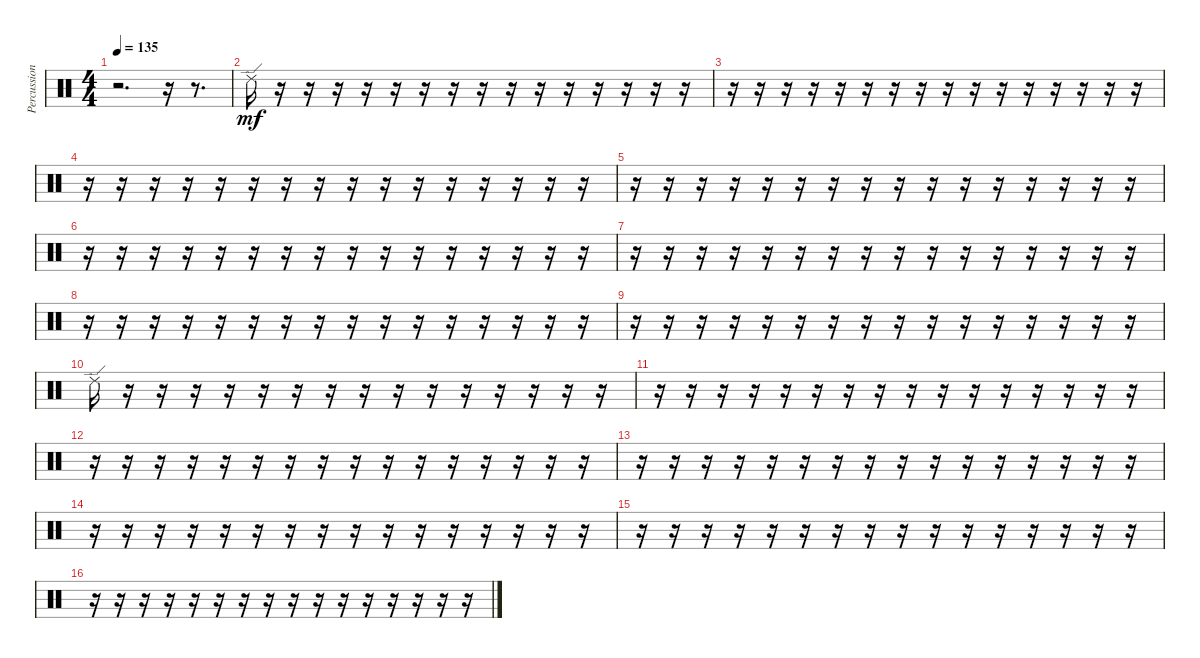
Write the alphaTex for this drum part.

\track ("Percussion (Orchestral Kit)" "Percussion") {instrument percussion}
\staff {score}
\articulation defaults
\ts (4 4)
\tempo 135
\clef neutral
\ks c
r.2{d dy mf} r.16 r.8{d} |
"Ride (edge) 2".16 r.16 r.16 r.16 r.16 r.16 r.16 r.16 r.16 r.16 r.16 r.16 r.16 r.16 r.16 r.16 |
r.16 r.16 r.16 r.16 r.16 r.16 r.16 r.16 r.16 r.16 r.16 r.16 r.16 r.16 r.16 r.16 |
r.16 r.16 r.16 r.16 r.16 r.16 r.16 r.16 r.16 r.16 r.16 r.16 r.16 r.16 r.16 r.16 |
r.16 r.16 r.16 r.16 r.16 r.16 r.16 r.16 r.16 r.16 r.16 r.16 r.16 r.16 r.16 r.16 |
r.16 r.16 r.16 r.16 r.16 r.16 r.16 r.16 r.16 r.16 r.16 r.16 r.16 r.16 r.16 r.16 |
r.16 r.16 r.16 r.16 r.16 r.16 r.16 r.16 r.16 r.16 r.16 r.16 r.16 r.16 r.16 r.16 |
r.16 r.16 r.16 r.16 r.16 r.16 r.16 r.16 r.16 r.16 r.16 r.16 r.16 r.16 r.16 r.16 |
r.16 r.16 r.16 r.16 r.16 r.16 r.16 r.16 r.16 r.16 r.16 r.16 r.16 r.16 r.16 r.16 |
"Ride (edge) 2".16 r.16 r.16 r.16 r.16 r.16 r.16 r.16 r.16 r.16 r.16 r.16 r.16 r.16 r.16 r.16 |
r.16 r.16 r.16 r.16 r.16 r.16 r.16 r.16 r.16 r.16 r.16 r.16 r.16 r.16 r.16 r.16 |
r.16 r.16 r.16 r.16 r.16 r.16 r.16 r.16 r.16 r.16 r.16 r.16 r.16 r.16 r.16 r.16 |
r.16 r.16 r.16 r.16 r.16 r.16 r.16 r.16 r.16 r.16 r.16 r.16 r.16 r.16 r.16 r.16 |
r.16 r.16 r.16 r.16 r.16 r.16 r.16 r.16 r.16 r.16 r.16 r.16 r.16 r.16 r.16 r.16 |
r.16 r.16 r.16 r.16 r.16 r.16 r.16 r.16 r.16 r.16 r.16 r.16 r.16 r.16 r.16 r.16 |
r.16 r.16 r.16 r.16 r.16 r.16 r.16 r.16 r.16 r.16 r.16 r.16 r.16 r.16 r.16 r.16
